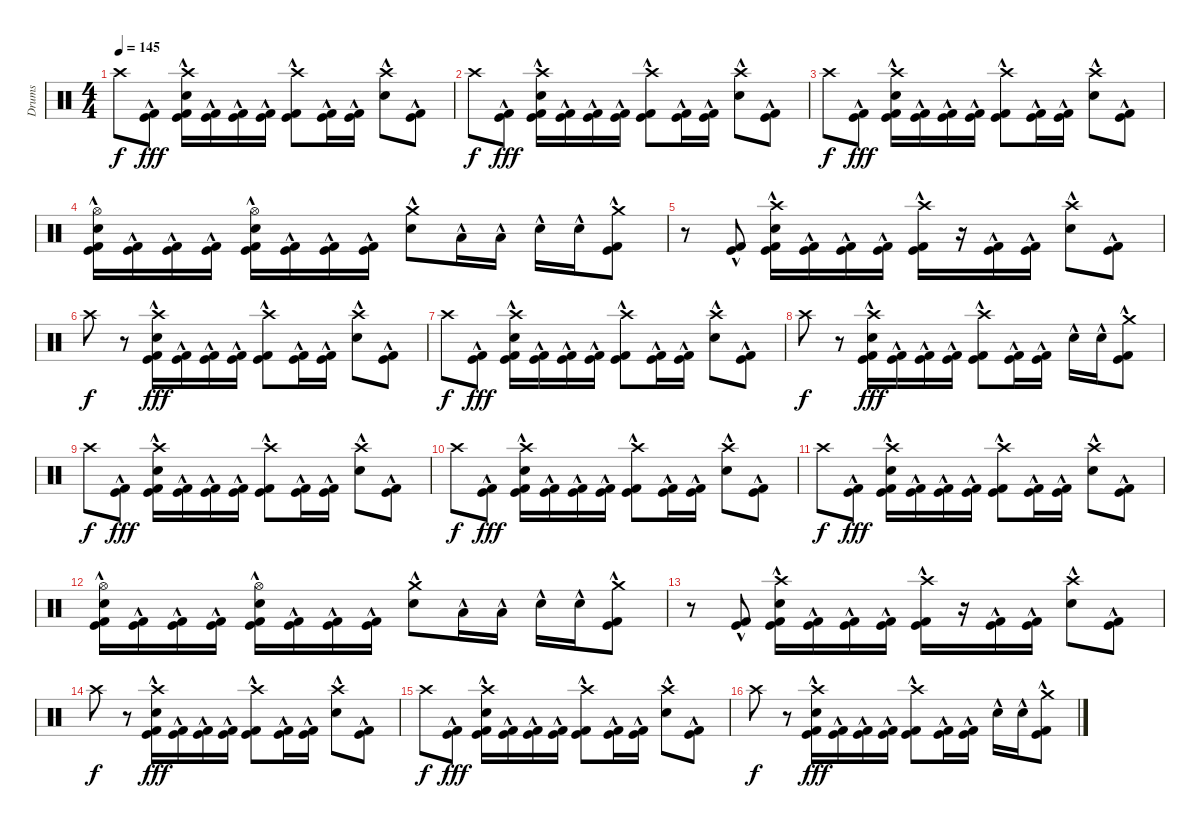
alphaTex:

\track ("Drums" "Drums") {instrument percussion}
\staff {score}
\articulation defaults
\ts (4 4)
\tempo 145
\clef neutral
\ks c "Crash high (hit)".8{dy f}
("Kick (hit)"{hac} "Kick (hit) 2"{hac}).8{dy fff} ("Crash high (hit)" "Electric Snare (hit)"{hac} "Kick (hit)"{hac} "Kick (hit) 2"{hac}).16 ("Kick (hit)"{hac} "Kick (hit) 2"{hac}).16 ("Kick (hit)"{hac} "Kick (hit) 2"{hac}).16 ("Kick (hit)"{hac} "Kick (hit) 2"{hac}).16 ("Crash high (hit)" "Kick (hit)" "Kick (hit) 2"{hac}).8 ("Kick (hit)"{hac} "Kick (hit) 2"{hac}).16 ("Kick (hit)"{hac} "Kick (hit) 2"{hac}).16 ("Crash high (hit)" "Electric Snare (hit)"{hac}).8 ("Kick (hit)"{hac} "Kick (hit) 2"{hac}).8 |
"Crash high (hit)".8{dy f} ("Kick (hit)"{hac} "Kick (hit) 2"{hac}).8{dy fff} ("Crash high (hit)" "Electric Snare (hit)"{hac} "Kick (hit)"{hac} "Kick (hit) 2"{hac}).16 ("Kick (hit)"{hac} "Kick (hit) 2"{hac}).16 ("Kick (hit)"{hac} "Kick (hit) 2"{hac}).16 ("Kick (hit)"{hac} "Kick (hit) 2"{hac}).16 ("Crash high (hit)" "Kick (hit)" "Kick (hit) 2"{hac}).8 ("Kick (hit)"{hac} "Kick (hit) 2"{hac}).16 ("Kick (hit)"{hac} "Kick (hit) 2"{hac}).16 ("Crash high (hit)" "Electric Snare (hit)"{hac}).8 ("Kick (hit)"{hac} "Kick (hit) 2"{hac}).8 |
"Crash high (hit)".8{dy f} ("Kick (hit)"{hac} "Kick (hit) 2"{hac}).8{dy fff} ("Crash high (hit)" "Electric Snare (hit)"{hac} "Kick (hit)"{hac} "Kick (hit) 2"{hac}).16 ("Kick (hit)"{hac} "Kick (hit) 2"{hac}).16 ("Kick (hit)"{hac} "Kick (hit) 2"{hac}).16 ("Kick (hit)"{hac} "Kick (hit) 2"{hac}).16 ("Crash high (hit)" "Kick (hit)" "Kick (hit) 2"{hac}).8 ("Kick (hit)"{hac} "Kick (hit) 2"{hac}).16 ("Kick (hit)"{hac} "Kick (hit) 2"{hac}).16 ("Crash high (hit)" "Electric Snare (hit)"{hac}).8 ("Kick (hit)"{hac} "Kick (hit) 2"{hac}).8 |
("Hi-Hat (open)" "Electric Snare (hit)"{hac} "Kick (hit)"{hac} "Kick (hit) 2"{hac}).16 ("Kick (hit)"{hac} "Kick (hit) 2"{hac}).16 ("Kick (hit)"{hac} "Kick (hit) 2"{hac}).16 ("Kick (hit)"{hac} "Kick (hit) 2"{hac}).16 ("Hi-Hat (open)" "Electric Snare (hit)"{hac} "Kick (hit)"{hac} "Kick (hit) 2"{hac}).16 ("Kick (hit)"{hac} "Kick (hit) 2"{hac}).16 ("Kick (hit)"{hac} "Kick (hit) 2"{hac}).16 ("Kick (hit)"{hac} "Kick (hit) 2"{hac}).16 ("Crash medium (hit)" "Electric Snare (hit)"{hac}).8 "Low Tom (hit)"{hac}.16 "Low Tom (hit)"{hac}.16 "Electric Snare (hit)"{hac}.16 "Electric Snare (hit)"{hac}.16 ("Crash medium (hit)" "Kick (hit)"{hac} "Kick (hit) 2"{hac}).8 |
r.8 ("Kick (hit)"{hac} "Kick (hit) 2"{hac}).8 ("Crash high (hit)" "Electric Snare (hit)"{hac} "Kick (hit)"{hac} "Kick (hit) 2"{hac}).16 ("Kick (hit)"{hac} "Kick (hit) 2"{hac}).16 ("Kick (hit)"{hac} "Kick (hit) 2"{hac}).16 ("Kick (hit)"{hac} "Kick (hit) 2"{hac}).16 ("Crash high (hit)" "Kick (hit)"{hac} "Kick (hit) 2"{hac}).16 r.16 ("Kick (hit)"{hac} "Kick (hit) 2"{hac}).16 ("Kick (hit)"{hac} "Kick (hit) 2"{hac}).16 ("Crash high (hit)" "Electric Snare (hit)"{hac}).8 ("Kick (hit)"{hac} "Kick (hit) 2"{hac}).8 |
"Crash high (hit)".8{dy f} r.8 ("Crash high (hit)" "Electric Snare (hit)"{hac} "Kick (hit)"{hac} "Kick (hit) 2"{hac}).16{dy fff} ("Kick (hit)"{hac} "Kick (hit) 2"{hac}).16 ("Kick (hit)"{hac} "Kick (hit) 2"{hac}).16 ("Kick (hit)"{hac} "Kick (hit) 2"{hac}).16 ("Crash high (hit)" "Kick (hit)" "Kick (hit) 2"{hac}).8 ("Kick (hit)"{hac} "Kick (hit) 2"{hac}).16 ("Kick (hit)"{hac} "Kick (hit) 2"{hac}).16 ("Crash high (hit)" "Electric Snare (hit)"{hac}).8 ("Kick (hit)"{hac} "Kick (hit) 2"{hac}).8 |
"Crash high (hit)".8{dy f} ("Kick (hit)"{hac} "Kick (hit) 2"{hac}).8{dy fff} ("Crash high (hit)" "Electric Snare (hit)"{hac} "Kick (hit)"{hac} "Kick (hit) 2"{hac}).16 ("Kick (hit)"{hac} "Kick (hit) 2"{hac}).16 ("Kick (hit)"{hac} "Kick (hit) 2"{hac}).16 ("Kick (hit)"{hac} "Kick (hit) 2"{hac}).16 ("Crash high (hit)" "Kick (hit)" "Kick (hit) 2"{hac}).8 ("Kick (hit)"{hac} "Kick (hit) 2"{hac}).16 ("Kick (hit)"{hac} "Kick (hit) 2"{hac}).16 ("Crash high (hit)" "Electric Snare (hit)"{hac}).8 ("Kick (hit)"{hac} "Kick (hit) 2"{hac}).8 |
"Crash high (hit)".8{dy f} r.8 ("Crash high (hit)" "Electric Snare (hit)"{hac} "Kick (hit)"{hac} "Kick (hit) 2"{hac}).16{dy fff} ("Kick (hit)"{hac} "Kick (hit) 2"{hac}).16 ("Kick (hit)"{hac} "Kick (hit) 2"{hac}).16 ("Kick (hit)"{hac} "Kick (hit) 2"{hac}).16 ("Crash high (hit)" "Kick (hit)" "Kick (hit) 2"{hac}).8 ("Kick (hit)"{hac} "Kick (hit) 2"{hac}).16 ("Kick (hit)"{hac} "Kick (hit) 2"{hac}).16 "Electric Snare (hit)"{hac}.16 "Electric Snare (hit)"{hac}.16 ("Crash medium (hit)" "Kick (hit)"{hac} "Kick (hit) 2"{hac}).8 |
"Crash high (hit)".8{dy f} ("Kick (hit)"{hac} "Kick (hit) 2"{hac}).8{dy fff} ("Crash high (hit)" "Electric Snare (hit)"{hac} "Kick (hit)"{hac} "Kick (hit) 2"{hac}).16 ("Kick (hit)"{hac} "Kick (hit) 2"{hac}).16 ("Kick (hit)"{hac} "Kick (hit) 2"{hac}).16 ("Kick (hit)"{hac} "Kick (hit) 2"{hac}).16 ("Crash high (hit)" "Kick (hit)" "Kick (hit) 2"{hac}).8 ("Kick (hit)"{hac} "Kick (hit) 2"{hac}).16 ("Kick (hit)"{hac} "Kick (hit) 2"{hac}).16 ("Crash high (hit)" "Electric Snare (hit)"{hac}).8 ("Kick (hit)"{hac} "Kick (hit) 2"{hac}).8 |
"Crash high (hit)".8{dy f} ("Kick (hit)"{hac} "Kick (hit) 2"{hac}).8{dy fff} ("Crash high (hit)" "Electric Snare (hit)"{hac} "Kick (hit)"{hac} "Kick (hit) 2"{hac}).16 ("Kick (hit)"{hac} "Kick (hit) 2"{hac}).16 ("Kick (hit)"{hac} "Kick (hit) 2"{hac}).16 ("Kick (hit)"{hac} "Kick (hit) 2"{hac}).16 ("Crash high (hit)" "Kick (hit)" "Kick (hit) 2"{hac}).8 ("Kick (hit)"{hac} "Kick (hit) 2"{hac}).16 ("Kick (hit)"{hac} "Kick (hit) 2"{hac}).16 ("Crash high (hit)" "Electric Snare (hit)"{hac}).8 ("Kick (hit)"{hac} "Kick (hit) 2"{hac}).8 |
"Crash high (hit)".8{dy f} ("Kick (hit)"{hac} "Kick (hit) 2"{hac}).8{dy fff} ("Crash high (hit)" "Electric Snare (hit)"{hac} "Kick (hit)"{hac} "Kick (hit) 2"{hac}).16 ("Kick (hit)"{hac} "Kick (hit) 2"{hac}).16 ("Kick (hit)"{hac} "Kick (hit) 2"{hac}).16 ("Kick (hit)"{hac} "Kick (hit) 2"{hac}).16 ("Crash high (hit)" "Kick (hit)" "Kick (hit) 2"{hac}).8 ("Kick (hit)"{hac} "Kick (hit) 2"{hac}).16 ("Kick (hit)"{hac} "Kick (hit) 2"{hac}).16 ("Crash high (hit)" "Electric Snare (hit)"{hac}).8 ("Kick (hit)"{hac} "Kick (hit) 2"{hac}).8 |
("Hi-Hat (open)" "Electric Snare (hit)"{hac} "Kick (hit)"{hac} "Kick (hit) 2"{hac}).16 ("Kick (hit)"{hac} "Kick (hit) 2"{hac}).16 ("Kick (hit)"{hac} "Kick (hit) 2"{hac}).16 ("Kick (hit)"{hac} "Kick (hit) 2"{hac}).16 ("Hi-Hat (open)" "Electric Snare (hit)"{hac} "Kick (hit)"{hac} "Kick (hit) 2"{hac}).16 ("Kick (hit)"{hac} "Kick (hit) 2"{hac}).16 ("Kick (hit)"{hac} "Kick (hit) 2"{hac}).16 ("Kick (hit)"{hac} "Kick (hit) 2"{hac}).16 ("Crash medium (hit)" "Electric Snare (hit)"{hac}).8 "Low Tom (hit)"{hac}.16 "Low Tom (hit)"{hac}.16 "Electric Snare (hit)"{hac}.16 "Electric Snare (hit)"{hac}.16 ("Crash medium (hit)" "Kick (hit)"{hac} "Kick (hit) 2"{hac}).8 |
r.8 ("Kick (hit)"{hac} "Kick (hit) 2"{hac}).8 ("Crash high (hit)" "Electric Snare (hit)"{hac} "Kick (hit)"{hac} "Kick (hit) 2"{hac}).16 ("Kick (hit)"{hac} "Kick (hit) 2"{hac}).16 ("Kick (hit)"{hac} "Kick (hit) 2"{hac}).16 ("Kick (hit)"{hac} "Kick (hit) 2"{hac}).16 ("Crash high (hit)" "Kick (hit)"{hac} "Kick (hit) 2"{hac}).16 r.16 ("Kick (hit)"{hac} "Kick (hit) 2"{hac}).16 ("Kick (hit)"{hac} "Kick (hit) 2"{hac}).16 ("Crash high (hit)" "Electric Snare (hit)"{hac}).8 ("Kick (hit)"{hac} "Kick (hit) 2"{hac}).8 |
"Crash high (hit)".8{dy f} r.8 ("Crash high (hit)" "Electric Snare (hit)"{hac} "Kick (hit)"{hac} "Kick (hit) 2"{hac}).16{dy fff} ("Kick (hit)"{hac} "Kick (hit) 2"{hac}).16 ("Kick (hit)"{hac} "Kick (hit) 2"{hac}).16 ("Kick (hit)"{hac} "Kick (hit) 2"{hac}).16 ("Crash high (hit)" "Kick (hit)" "Kick (hit) 2"{hac}).8 ("Kick (hit)"{hac} "Kick (hit) 2"{hac}).16 ("Kick (hit)"{hac} "Kick (hit) 2"{hac}).16 ("Crash high (hit)" "Electric Snare (hit)"{hac}).8 ("Kick (hit)"{hac} "Kick (hit) 2"{hac}).8 |
"Crash high (hit)".8{dy f} ("Kick (hit)"{hac} "Kick (hit) 2"{hac}).8{dy fff} ("Crash high (hit)" "Electric Snare (hit)"{hac} "Kick (hit)"{hac} "Kick (hit) 2"{hac}).16 ("Kick (hit)"{hac} "Kick (hit) 2"{hac}).16 ("Kick (hit)"{hac} "Kick (hit) 2"{hac}).16 ("Kick (hit)"{hac} "Kick (hit) 2"{hac}).16 ("Crash high (hit)" "Kick (hit)" "Kick (hit) 2"{hac}).8 ("Kick (hit)"{hac} "Kick (hit) 2"{hac}).16 ("Kick (hit)"{hac} "Kick (hit) 2"{hac}).16 ("Crash high (hit)" "Electric Snare (hit)"{hac}).8 ("Kick (hit)"{hac} "Kick (hit) 2"{hac}).8 |
"Crash high (hit)".8{dy f} r.8 ("Crash high (hit)" "Electric Snare (hit)"{hac} "Kick (hit)"{hac} "Kick (hit) 2"{hac}).16{dy fff} ("Kick (hit)"{hac} "Kick (hit) 2"{hac}).16 ("Kick (hit)"{hac} "Kick (hit) 2"{hac}).16 ("Kick (hit)"{hac} "Kick (hit) 2"{hac}).16 ("Crash high (hit)" "Kick (hit)" "Kick (hit) 2"{hac}).8 ("Kick (hit)"{hac} "Kick (hit) 2"{hac}).16 ("Kick (hit)"{hac} "Kick (hit) 2"{hac}).16 "Electric Snare (hit)"{hac}.16 "Electric Snare (hit)"{hac}.16 ("Crash medium (hit)" "Kick (hit)"{hac} "Kick (hit) 2"{hac}).8
